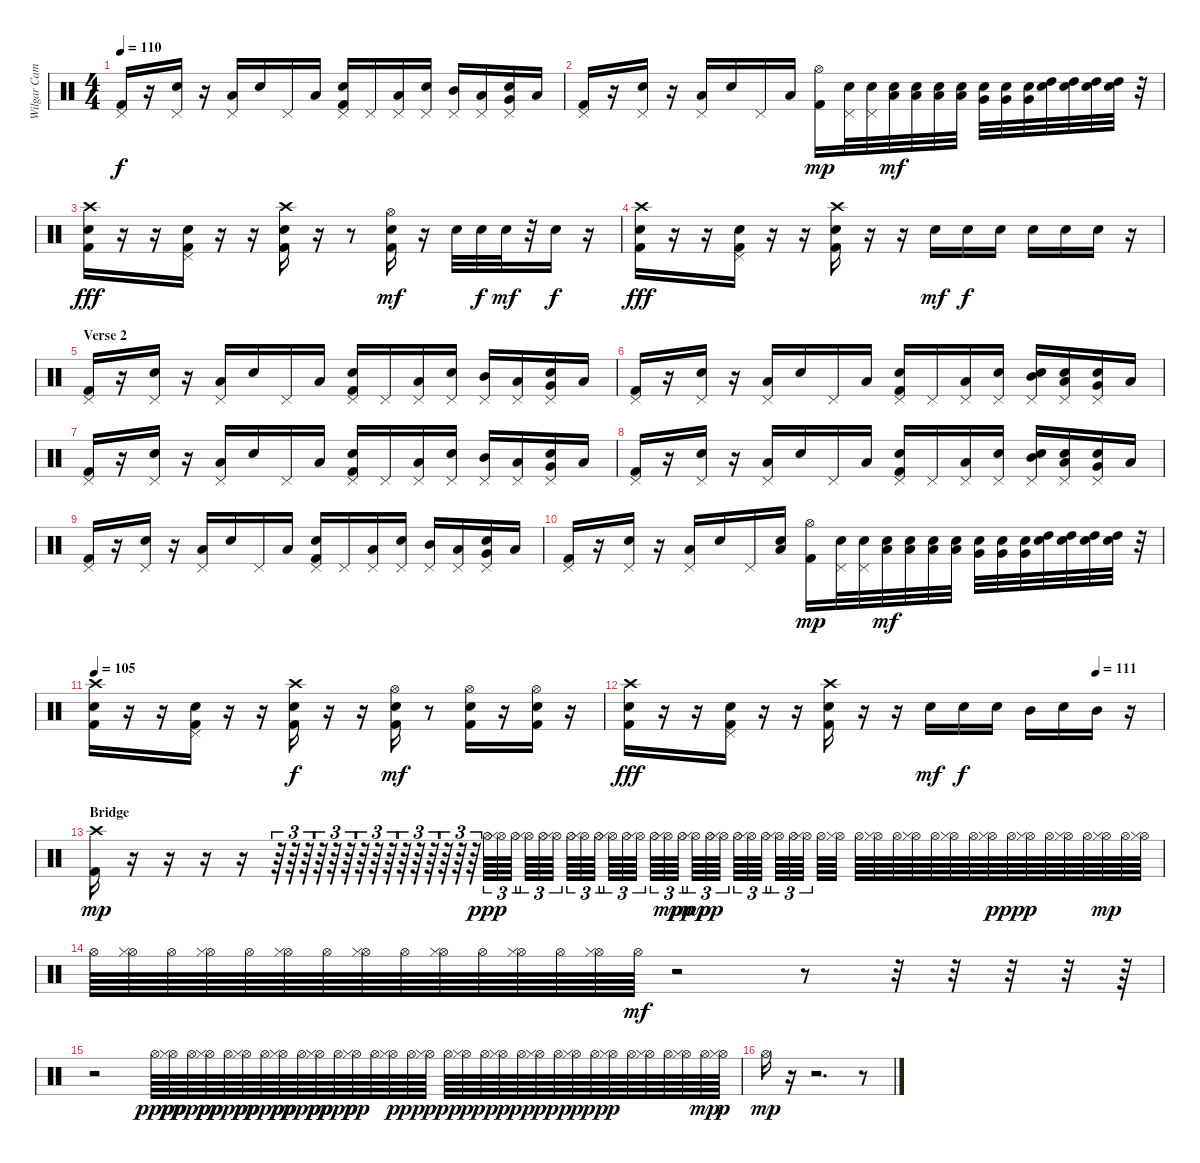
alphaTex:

\track ("Wilgar Campbell" "Wilgar Cam") {instrument percussion}
\staff {score}
\articulation defaults
\ts (4 4)
\tempo 110
\clef neutral
\ks c
("Pedal Hi-Hat (hit)" "Kick (hit) 2").16{dy f} r.16 ("Snare (hit) 2" "Pedal Hi-Hat (hit)").16 r.16 ("Low Tom (hit)" "Pedal Hi-Hat (hit)").16 "Snare (hit) 2".16 "Pedal Hi-Hat (hit)".16 "Low Tom (hit)".16 ("Snare (hit) 2" "Pedal Hi-Hat (hit)" "Kick (hit) 2").16 "Pedal Hi-Hat (hit)".16 ("Low Tom (hit)" "Pedal Hi-Hat (hit)").16 ("Snare (hit) 2" "Pedal Hi-Hat (hit)").16 ("Mid Tom (hit)" "Pedal Hi-Hat (hit)").16 ("Low Tom (hit)" "Pedal Hi-Hat (hit)").16 ("Very Low Tom (hit)" "Snare (hit) 2" "Pedal Hi-Hat (hit)").16 "Low Tom (hit)".16 |
("Pedal Hi-Hat (hit)" "Kick (hit) 2").16 r.16 ("Snare (hit) 2" "Pedal Hi-Hat (hit)").16 r.16 ("Low Tom (hit)" "Pedal Hi-Hat (hit)").16 "Snare (hit) 2".16 "Pedal Hi-Hat (hit)".16 "Low Tom (hit)".16 ("Hi-Hat (open)" "Kick (hit) 2").16{dy mp} ("Electric Snare (hit)" "Pedal Hi-Hat (hit)").32 ("Electric Snare (hit)" "Pedal Hi-Hat (hit)").32 ("Snare (hit) 2" "Low Tom (hit)").32{dy mf} ("Snare (hit) 2" "Low Tom (hit)").32 ("Snare (hit) 2" "Low Tom (hit)").32 ("Snare (hit) 2" "Low Tom (hit)").32 ("Electric Snare (hit)" "Very Low Tom (hit)").32 ("Electric Snare (hit)" "Very Low Tom (hit)").32 ("Electric Snare (hit)" "Very Low Tom (hit)").32 ("Snare (hit) 2" "High Tom (hit)").32 ("Snare (hit) 2" "High Tom (hit)").32 ("Snare (hit) 2" "High Tom (hit)").32 ("Snare (hit) 2" "High Tom (hit)").32 r.32 |
("Crash high (hit)" "Snare (hit) 2" "Kick (hit) 2").16{dy fff} r.16 r.16 ("Pedal Hi-Hat (hit)" "Snare (hit) 2" "Kick (hit) 2").16 r.16 r.16 ("Crash high (hit)" "Snare (hit) 2" "Kick (hit) 2").16 r.16 r.8 ("Hi-Hat (open)" "Snare (hit) 2" "Kick (hit) 2").16{dy mf} r.16 "Snare (hit) 2".32 "Snare (hit) 2".32{dy f} "Snare (hit) 2".32{dy mf} r.32 "Electric Snare (hit)".16{dy f} r.16 |
("Crash high (hit)" "Snare (hit) 2" "Kick (hit) 2").16{dy fff} r.16 r.16 ("Pedal Hi-Hat (hit)" "Snare (hit) 2" "Kick (hit) 2").16 r.16 r.16 ("Crash high (hit)" "Snare (hit) 2" "Kick (hit) 2").16 r.16 r.16 "Electric Snare (hit)".16{dy mf} "Electric Snare (hit)".16{dy f} "Electric Snare (hit)".16 "Electric Snare (hit)".16 "Electric Snare (hit)".16 "Electric Snare (hit)".16 r.16 |
\section ("" "Verse 2")
("Pedal Hi-Hat (hit)" "Kick (hit) 2").16 r.16 ("Snare (hit) 2" "Pedal Hi-Hat (hit)").16 r.16 ("Low Tom (hit)" "Pedal Hi-Hat (hit)").16 "Snare (hit) 2".16 "Pedal Hi-Hat (hit)".16 "Low Tom (hit)".16 ("Snare (hit) 2" "Pedal Hi-Hat (hit)" "Kick (hit) 2").16 "Pedal Hi-Hat (hit)".16 ("Low Tom (hit)" "Pedal Hi-Hat (hit)").16 ("Snare (hit) 2" "Pedal Hi-Hat (hit)").16 ("Mid Tom (hit)" "Pedal Hi-Hat (hit)").16 ("Low Tom (hit)" "Pedal Hi-Hat (hit)").16 ("Very Low Tom (hit)" "Snare (hit) 2" "Pedal Hi-Hat (hit)").16 "Low Tom (hit)".16 |
("Pedal Hi-Hat (hit)" "Kick (hit) 2").16 r.16 ("Snare (hit) 2" "Pedal Hi-Hat (hit)").16 r.16 ("Low Tom (hit)" "Pedal Hi-Hat (hit)").16 "Snare (hit) 2".16 "Pedal Hi-Hat (hit)".16 "Low Tom (hit)".16 ("Snare (hit) 2" "Pedal Hi-Hat (hit)" "Kick (hit) 2").16 "Pedal Hi-Hat (hit)".16 ("Low Tom (hit)" "Pedal Hi-Hat (hit)").16 ("Snare (hit) 2" "Pedal Hi-Hat (hit)").16 ("Mid Tom (hit)" "Electric Snare (hit)" "Pedal Hi-Hat (hit)").16 ("Low Tom (hit)" "Electric Snare (hit)" "Pedal Hi-Hat (hit)").16 ("Very Low Tom (hit)" "Snare (hit) 2" "Pedal Hi-Hat (hit)").16 "Low Tom (hit)".16 |
("Pedal Hi-Hat (hit)" "Kick (hit) 2").16 r.16 ("Snare (hit) 2" "Pedal Hi-Hat (hit)").16 r.16 ("Low Tom (hit)" "Pedal Hi-Hat (hit)").16 "Snare (hit) 2".16 "Pedal Hi-Hat (hit)".16 "Low Tom (hit)".16 ("Snare (hit) 2" "Pedal Hi-Hat (hit)" "Kick (hit) 2").16 "Pedal Hi-Hat (hit)".16 ("Low Tom (hit)" "Pedal Hi-Hat (hit)").16 ("Snare (hit) 2" "Pedal Hi-Hat (hit)").16 ("Mid Tom (hit)" "Pedal Hi-Hat (hit)").16 ("Low Tom (hit)" "Pedal Hi-Hat (hit)").16 ("Very Low Tom (hit)" "Snare (hit) 2" "Pedal Hi-Hat (hit)").16 "Low Tom (hit)".16 |
("Pedal Hi-Hat (hit)" "Kick (hit) 2").16 r.16 ("Snare (hit) 2" "Pedal Hi-Hat (hit)").16 r.16 ("Low Tom (hit)" "Pedal Hi-Hat (hit)").16 "Snare (hit) 2".16 "Pedal Hi-Hat (hit)".16 "Low Tom (hit)".16 ("Snare (hit) 2" "Pedal Hi-Hat (hit)" "Kick (hit) 2").16 "Pedal Hi-Hat (hit)".16 ("Low Tom (hit)" "Pedal Hi-Hat (hit)").16 ("Snare (hit) 2" "Pedal Hi-Hat (hit)").16 ("Mid Tom (hit)" "Electric Snare (hit)" "Pedal Hi-Hat (hit)").16 ("Low Tom (hit)" "Electric Snare (hit)" "Pedal Hi-Hat (hit)").16 ("Very Low Tom (hit)" "Snare (hit) 2" "Pedal Hi-Hat (hit)").16 "Low Tom (hit)".16 |
("Pedal Hi-Hat (hit)" "Kick (hit) 2").16 r.16 ("Snare (hit) 2" "Pedal Hi-Hat (hit)").16 r.16 ("Low Tom (hit)" "Pedal Hi-Hat (hit)").16 "Snare (hit) 2".16 "Pedal Hi-Hat (hit)".16 "Low Tom (hit)".16 ("Snare (hit) 2" "Pedal Hi-Hat (hit)" "Kick (hit) 2").16 "Pedal Hi-Hat (hit)".16 ("Low Tom (hit)" "Pedal Hi-Hat (hit)").16 ("Snare (hit) 2" "Pedal Hi-Hat (hit)").16 ("Mid Tom (hit)" "Pedal Hi-Hat (hit)").16 ("Low Tom (hit)" "Pedal Hi-Hat (hit)").16 ("Very Low Tom (hit)" "Snare (hit) 2" "Pedal Hi-Hat (hit)").16 "Low Tom (hit)".16 |
("Pedal Hi-Hat (hit)" "Kick (hit) 2").16 r.16 ("Snare (hit) 2" "Pedal Hi-Hat (hit)").16 r.16 ("Low Tom (hit)" "Pedal Hi-Hat (hit)").16 "Snare (hit) 2".16 "Pedal Hi-Hat (hit)".16 ("Low Tom (hit)" "Snare (hit) 2").16 ("Hi-Hat (open)" "Kick (hit) 2").16{dy mp} ("Electric Snare (hit)" "Pedal Hi-Hat (hit)").32 ("Electric Snare (hit)" "Pedal Hi-Hat (hit)").32 ("Snare (hit) 2" "Low Tom (hit)").32{dy mf} ("Snare (hit) 2" "Low Tom (hit)").32 ("Snare (hit) 2" "Low Tom (hit)").32 ("Snare (hit) 2" "Low Tom (hit)").32 ("Electric Snare (hit)" "Very Low Tom (hit)").32 ("Electric Snare (hit)" "Very Low Tom (hit)").32 ("Electric Snare (hit)" "Very Low Tom (hit)").32 ("Snare (hit) 2" "High Tom (hit)").32 ("Snare (hit) 2" "High Tom (hit)").32 ("Snare (hit) 2" "High Tom (hit)").32 ("Snare (hit) 2" "High Tom (hit)").32 r.32 |
\tempo 105
("Crash high (hit)" "Snare (hit) 2" "Kick (hit) 2").16 r.16 r.16 ("Pedal Hi-Hat (hit)" "Snare (hit) 2" "Kick (hit) 2").16 r.16 r.16 ("Crash high (hit)" "Snare (hit) 2" "Kick (hit) 2").16{dy f} r.16 r.16 ("Hi-Hat (open)" "Snare (hit) 2" "Kick (hit) 2").16{dy mf} r.8 ("Hi-Hat (open)" "Snare (hit) 2" "Kick (hit) 2").16 r.16 ("Hi-Hat (open)" "Snare (hit) 2" "Kick (hit) 2").16 r.16 |
\tempo (111 0.875)
("Crash high (hit)" "Snare (hit) 2" "Kick (hit) 2").16{dy fff} r.16 r.16 ("Pedal Hi-Hat (hit)" "Snare (hit) 2" "Kick (hit) 2").16 r.16 r.16 ("Crash high (hit)" "Snare (hit) 2" "Kick (hit) 2").16 r.16 r.16 "Snare (hit) 2".16{dy mf} "Electric Snare (hit)".16{dy f} "Snare (hit) 2".16 "Mid Tom (hit)".16 "Snare (hit) 2".16 "Mid Tom (hit)".16 r.16 |
\section ("" "Bridge")
("Crash high (hit)" "Kick (hit) 2").16{dy mp} r.16 r.16 r.16 r.16 r.64{tu (3 2)} r.64{tu (3 2)} r.64{tu (3 2)} r.64{tu (3 2)} r.64{tu (3 2)} r.64{tu (3 2)} r.64{tu (3 2)} r.64{tu (3 2)} r.64{tu (3 2)} r.64{tu (3 2)} r.64{tu (3 2)} r.64{tu (3 2)} r.64{tu (3 2)} r.64{tu (3 2)} r.64{tu (3 2)} "Hi-Hat (open)".64{tu (3 2) dy ppp} ("Hi-Hat (open)" "Hi-Hat (closed)").64{tu (3 2)} "Hi-Hat (open)".64{tu (3 2)} ("Hi-Hat (open)" "Hi-Hat (closed)").64{tu (3 2)} "Hi-Hat (open)".64{tu (3 2)} ("Hi-Hat (open)" "Hi-Hat (closed)").64{tu (3 2)} "Hi-Hat (open)".64{tu (3 2)} ("Hi-Hat (open)" "Hi-Hat (closed)").64{tu (3 2)} "Hi-Hat (open)".64{tu (3 2)} ("Hi-Hat (open)" "Hi-Hat (closed)").64{tu (3 2)} "Hi-Hat (open)".64{tu (3 2)} ("Hi-Hat (open)" "Hi-Hat (closed)").64{tu (3 2)} "Hi-Hat (open)".64{tu (3 2)} ("Hi-Hat (open)" "Hi-Hat (closed)").64{tu (3 2) dy mp} "Hi-Hat (open)".64{tu (3 2) dy pp} ("Hi-Hat (open)" "Hi-Hat (closed)").64{tu (3 2) dy mp} "Hi-Hat (open)".64{tu (3 2) dy pp} ("Hi-Hat (open)" "Hi-Hat (closed)").64{tu (3 2)} "Hi-Hat (open)".64{tu (3 2)} ("Hi-Hat (open)" "Hi-Hat (closed)").64{tu (3 2)} "Hi-Hat (open)".64{tu (3 2)} ("Hi-Hat (open)" "Hi-Hat (closed)").64{tu (3 2)} "Hi-Hat (open)".64{tu (3 2)} ("Hi-Hat (open)" "Hi-Hat (closed)").64{tu (3 2)} "Hi-Hat (open)".64 ("Hi-Hat (open)" "Hi-Hat (closed)").64 "Hi-Hat (open)".64 ("Hi-Hat (open)" "Hi-Hat (closed)").64 "Hi-Hat (open)".64 ("Hi-Hat (open)" "Hi-Hat (closed)").64 "Hi-Hat (open)".64 ("Hi-Hat (open)" "Hi-Hat (closed)").64 "Hi-Hat (open)".64 ("Hi-Hat (open)" "Hi-Hat (closed)").64{dy p} "Hi-Hat (open)".64{dy pp} ("Hi-Hat (open)" "Hi-Hat (closed)").64{dy p} "Hi-Hat (open)".64 ("Hi-Hat (open)" "Hi-Hat (closed)").64 "Hi-Hat (open)".64 ("Hi-Hat (open)" "Hi-Hat (closed)").64{dy mp} "Hi-Hat (open)".64 ("Hi-Hat (open)" "Hi-Hat (closed)").64 |
"Hi-Hat (open)".64 ("Hi-Hat (open)" "Hi-Hat (closed)").64 "Hi-Hat (open)".64 ("Hi-Hat (open)" "Hi-Hat (closed)").64 "Hi-Hat (open)".64 ("Hi-Hat (open)" "Hi-Hat (closed)").64 "Hi-Hat (open)".64 ("Hi-Hat (open)" "Hi-Hat (closed)").64 "Hi-Hat (open)".64 ("Hi-Hat (open)" "Hi-Hat (closed)").64 "Hi-Hat (open)".64 ("Hi-Hat (open)" "Hi-Hat (closed)").64 "Hi-Hat (open)".64 ("Hi-Hat (open)" "Hi-Hat (closed)").64 "Hi-Hat (open)".64{dy mf} r.2 r.8 r.32 r.32 r.32 r.32 r.64 |
r.2 "Hi-Hat (open)".64{dy ppp} ("Hi-Hat (open)" "Hi-Hat (closed)").64{dy pp} "Hi-Hat (open)".64{dy ppp} ("Hi-Hat (open)" "Hi-Hat (closed)").64{dy pp} "Hi-Hat (open)".64{dy ppp} ("Hi-Hat (open)" "Hi-Hat (closed)").64{dy pp} "Hi-Hat (open)".64{dy ppp} ("Hi-Hat (open)" "Hi-Hat (closed)").64{dy pp} "Hi-Hat (open)".64{dy ppp} ("Hi-Hat (open)" "Hi-Hat (closed)").64{dy pp} "Hi-Hat (open)".64{dy ppp} ("Hi-Hat (open)" "Hi-Hat (closed)").64{dy pp} "Hi-Hat (open)".64 ("Hi-Hat (open)" "Hi-Hat (closed)").64{dy p} "Hi-Hat (open)".64{dy pp} ("Hi-Hat (open)" "Hi-Hat (closed)").64{dy p} "Hi-Hat (open)".64{dy pp} ("Hi-Hat (open)" "Hi-Hat (closed)").64{dy p} "Hi-Hat (open)".64{dy pp} ("Hi-Hat (open)" "Hi-Hat (closed)").64{dy p} "Hi-Hat (open)".64{dy pp} ("Hi-Hat (open)" "Hi-Hat (closed)").64{dy p} "Hi-Hat (open)".64{dy pp} ("Hi-Hat (open)" "Hi-Hat (closed)").64{dy p} "Hi-Hat (open)".64{dy pp} ("Hi-Hat (open)" "Hi-Hat (closed)").64{dy p} "Hi-Hat (open)".64 ("Hi-Hat (open)" "Hi-Hat (closed)").64 "Hi-Hat (open)".64 ("Hi-Hat (open)" "Hi-Hat (closed)").64 "Hi-Hat (open)".64{dy mp} ("Hi-Hat (open)" "Hi-Hat (closed)").64{dy p} |
"Hi-Hat (open)".16{dy mp} r.16 r.2{d} r.8
